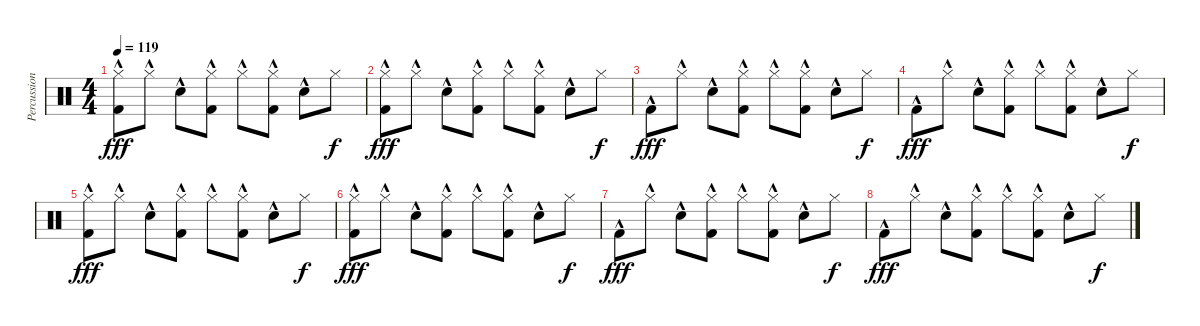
\track ("Percussion" "Percussion") {instrument percussion}
\staff {score}
\articulation defaults
\ts (4 4)
\tempo 119
\clef neutral
\ks c
("Hi-Hat (closed)" "Kick (hit) 2"{hac}).8{dy fff} "Hi-Hat (closed)"{hac}.8 "Electric Snare (hit)"{hac}.8 ("Hi-Hat (closed)"{hac} "Kick (hit) 2"{hac}).8 "Hi-Hat (closed)"{hac}.8 ("Hi-Hat (closed)"{hac} "Kick (hit) 2"{hac}).8 "Electric Snare (hit)"{hac}.8 "Hi-Hat (closed)".8{dy f} |
("Hi-Hat (closed)" "Kick (hit) 2"{hac}).8{dy fff} "Hi-Hat (closed)"{hac}.8 "Electric Snare (hit)"{hac}.8 ("Hi-Hat (closed)"{hac} "Kick (hit) 2"{hac}).8 "Hi-Hat (closed)"{hac}.8 ("Hi-Hat (closed)"{hac} "Kick (hit) 2"{hac}).8 "Electric Snare (hit)"{hac}.8 "Hi-Hat (closed)".8{dy f} |
"Kick (hit) 2"{hac}.8{dy fff} "Hi-Hat (closed)"{hac}.8 "Electric Snare (hit)"{hac}.8 ("Hi-Hat (closed)"{hac} "Kick (hit) 2"{hac}).8 "Hi-Hat (closed)"{hac}.8 ("Hi-Hat (closed)"{hac} "Kick (hit) 2"{hac}).8 "Electric Snare (hit)"{hac}.8 "Hi-Hat (closed)".8{dy f} |
"Kick (hit) 2"{hac}.8{dy fff} "Hi-Hat (closed)"{hac}.8 "Electric Snare (hit)"{hac}.8 ("Hi-Hat (closed)"{hac} "Kick (hit) 2"{hac}).8 "Hi-Hat (closed)"{hac}.8 ("Hi-Hat (closed)"{hac} "Kick (hit) 2"{hac}).8 "Electric Snare (hit)"{hac}.8 "Hi-Hat (closed)".8{dy f} |
("Hi-Hat (closed)" "Kick (hit) 2"{hac}).8{dy fff} "Hi-Hat (closed)"{hac}.8 "Electric Snare (hit)"{hac}.8 ("Hi-Hat (closed)"{hac} "Kick (hit) 2"{hac}).8 "Hi-Hat (closed)"{hac}.8 ("Hi-Hat (closed)"{hac} "Kick (hit) 2"{hac}).8 "Electric Snare (hit)"{hac}.8 "Hi-Hat (closed)".8{dy f} |
("Hi-Hat (closed)" "Kick (hit) 2"{hac}).8{dy fff} "Hi-Hat (closed)"{hac}.8 "Electric Snare (hit)"{hac}.8 ("Hi-Hat (closed)"{hac} "Kick (hit) 2"{hac}).8 "Hi-Hat (closed)"{hac}.8 ("Hi-Hat (closed)"{hac} "Kick (hit) 2"{hac}).8 "Electric Snare (hit)"{hac}.8 "Hi-Hat (closed)".8{dy f} |
"Kick (hit) 2"{hac}.8{dy fff} "Hi-Hat (closed)"{hac}.8 "Electric Snare (hit)"{hac}.8 ("Hi-Hat (closed)"{hac} "Kick (hit) 2"{hac}).8 "Hi-Hat (closed)"{hac}.8 ("Hi-Hat (closed)"{hac} "Kick (hit) 2"{hac}).8 "Electric Snare (hit)"{hac}.8 "Hi-Hat (closed)".8{dy f} |
"Kick (hit) 2"{hac}.8{dy fff} "Hi-Hat (closed)"{hac}.8 "Electric Snare (hit)"{hac}.8 ("Hi-Hat (closed)"{hac} "Kick (hit) 2"{hac}).8 "Hi-Hat (closed)"{hac}.8 ("Hi-Hat (closed)"{hac} "Kick (hit) 2"{hac}).8 "Electric Snare (hit)"{hac}.8 "Hi-Hat (closed)".8{dy f}
